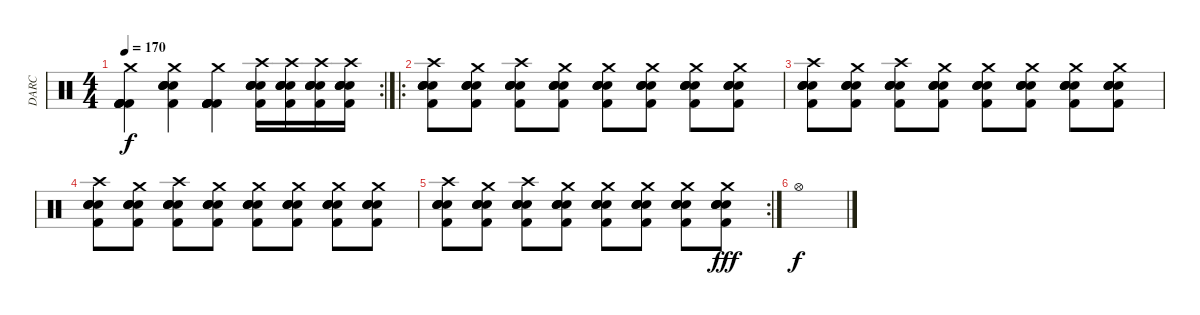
\track ("DARC" "DARC") {instrument percussion}
\staff {score}
\articulation defaults
\rc 2
\ts (4 4)
\tempo 170
\clef neutral
\ks c
("Crash medium (hit)" "Kick (hit) 2" "Kick (hit) 2" "Kick (hit) 2" "Kick (hit) 2" "Kick (hit) 2").4{dy f} ("Crash medium (hit)" "Kick (hit) 2" "Electric Snare (hit)" "Electric Snare (hit)" "Electric Snare (hit)" "Electric Snare (hit)").4 ("Crash medium (hit)" "Kick (hit) 2" "Kick (hit) 2" "Kick (hit) 2" "Kick (hit) 2" "Kick (hit) 2").4 ("Crash high (hit)" "Kick (hit) 2" "Electric Snare (hit)" "Electric Snare (hit)" "Electric Snare (hit)" "Electric Snare (hit)").16 ("Crash high (hit)" "Kick (hit) 2" "Electric Snare (hit)" "Electric Snare (hit)" "Electric Snare (hit)" "Electric Snare (hit)").16 ("Crash high (hit)" "Kick (hit) 2" "Electric Snare (hit)" "Electric Snare (hit)" "Electric Snare (hit)" "Electric Snare (hit)").16 ("Crash high (hit)" "Kick (hit) 2" "Electric Snare (hit)" "Electric Snare (hit)" "Electric Snare (hit)" "Electric Snare (hit)").16 |
\ro
("Crash high (hit)" "Kick (hit) 2" "Electric Snare (hit)" "Electric Snare (hit)" "Electric Snare (hit)" "Electric Snare (hit)").8 ("Crash medium (hit)" "Kick (hit) 2" "Electric Snare (hit)" "Electric Snare (hit)" "Electric Snare (hit)" "Electric Snare (hit)").8 ("Crash high (hit)" "Kick (hit) 2" "Electric Snare (hit)" "Electric Snare (hit)" "Electric Snare (hit)" "Electric Snare (hit)").8 ("Crash medium (hit)" "Kick (hit) 2" "Electric Snare (hit)" "Electric Snare (hit)" "Electric Snare (hit)" "Electric Snare (hit)").8 ("Crash medium (hit)" "Kick (hit) 2" "Electric Snare (hit)" "Electric Snare (hit)" "Electric Snare (hit)" "Electric Snare (hit)").8 ("Crash medium (hit)" "Kick (hit) 2" "Electric Snare (hit)" "Electric Snare (hit)" "Electric Snare (hit)" "Electric Snare (hit)").8 ("Crash medium (hit)" "Kick (hit) 2" "Electric Snare (hit)" "Electric Snare (hit)" "Electric Snare (hit)" "Electric Snare (hit)").8 ("Crash medium (hit)" "Kick (hit) 2" "Electric Snare (hit)" "Electric Snare (hit)" "Electric Snare (hit)" "Electric Snare (hit)").8 |
("Crash high (hit)" "Kick (hit) 2" "Electric Snare (hit)" "Electric Snare (hit)" "Electric Snare (hit)" "Electric Snare (hit)").8 ("Crash medium (hit)" "Kick (hit) 2" "Electric Snare (hit)" "Electric Snare (hit)" "Electric Snare (hit)" "Electric Snare (hit)").8 ("Crash high (hit)" "Kick (hit) 2" "Electric Snare (hit)" "Electric Snare (hit)" "Electric Snare (hit)" "Electric Snare (hit)").8 ("Crash medium (hit)" "Kick (hit) 2" "Electric Snare (hit)" "Electric Snare (hit)" "Electric Snare (hit)" "Electric Snare (hit)").8 ("Crash medium (hit)" "Kick (hit) 2" "Electric Snare (hit)" "Electric Snare (hit)" "Electric Snare (hit)" "Electric Snare (hit)").8 ("Crash medium (hit)" "Kick (hit) 2" "Electric Snare (hit)" "Electric Snare (hit)" "Electric Snare (hit)" "Electric Snare (hit)").8 ("Crash medium (hit)" "Kick (hit) 2" "Electric Snare (hit)" "Electric Snare (hit)" "Electric Snare (hit)" "Electric Snare (hit)").8 ("Crash medium (hit)" "Kick (hit) 2" "Electric Snare (hit)" "Electric Snare (hit)" "Electric Snare (hit)" "Electric Snare (hit)").8 |
("Crash high (hit)" "Kick (hit) 2" "Electric Snare (hit)" "Electric Snare (hit)" "Electric Snare (hit)" "Electric Snare (hit)").8 ("Crash medium (hit)" "Kick (hit) 2" "Electric Snare (hit)" "Electric Snare (hit)" "Electric Snare (hit)" "Electric Snare (hit)").8 ("Crash high (hit)" "Kick (hit) 2" "Electric Snare (hit)" "Electric Snare (hit)" "Electric Snare (hit)" "Electric Snare (hit)").8 ("Crash medium (hit)" "Kick (hit) 2" "Electric Snare (hit)" "Electric Snare (hit)" "Electric Snare (hit)" "Electric Snare (hit)").8 ("Crash medium (hit)" "Kick (hit) 2" "Electric Snare (hit)" "Electric Snare (hit)" "Electric Snare (hit)" "Electric Snare (hit)").8 ("Crash medium (hit)" "Kick (hit) 2" "Electric Snare (hit)" "Electric Snare (hit)" "Electric Snare (hit)" "Electric Snare (hit)").8 ("Crash medium (hit)" "Kick (hit) 2" "Electric Snare (hit)" "Electric Snare (hit)" "Electric Snare (hit)" "Electric Snare (hit)").8 ("Crash medium (hit)" "Kick (hit) 2" "Electric Snare (hit)" "Electric Snare (hit)" "Electric Snare (hit)" "Electric Snare (hit)").8 |
\rc 2
("Crash high (hit)" "Kick (hit) 2" "Electric Snare (hit)" "Electric Snare (hit)" "Electric Snare (hit)" "Electric Snare (hit)").8 ("Crash medium (hit)" "Kick (hit) 2" "Electric Snare (hit)" "Electric Snare (hit)" "Electric Snare (hit)" "Electric Snare (hit)").8 ("Crash high (hit)" "Kick (hit) 2" "Electric Snare (hit)" "Electric Snare (hit)" "Electric Snare (hit)" "Electric Snare (hit)").8 ("Crash medium (hit)" "Kick (hit) 2" "Electric Snare (hit)" "Electric Snare (hit)" "Electric Snare (hit)" "Electric Snare (hit)").8 ("Crash medium (hit)" "Kick (hit) 2" "Electric Snare (hit)" "Electric Snare (hit)" "Electric Snare (hit)" "Electric Snare (hit)").8 ("Crash medium (hit)" "Kick (hit) 2" "Electric Snare (hit)" "Electric Snare (hit)" "Electric Snare (hit)" "Electric Snare (hit)").8 ("Crash medium (hit)" "Kick (hit) 2" "Electric Snare (hit)" "Electric Snare (hit)" "Electric Snare (hit)" "Electric Snare (hit)").8 ("Crash medium (hit)" "Kick (hit) 2" "Electric Snare (hit)" "Electric Snare (hit)" "Electric Snare (hit)" "Electric Snare (hit)").8{dy fff} |
"Hi-Hat (open)".1{dy f}
